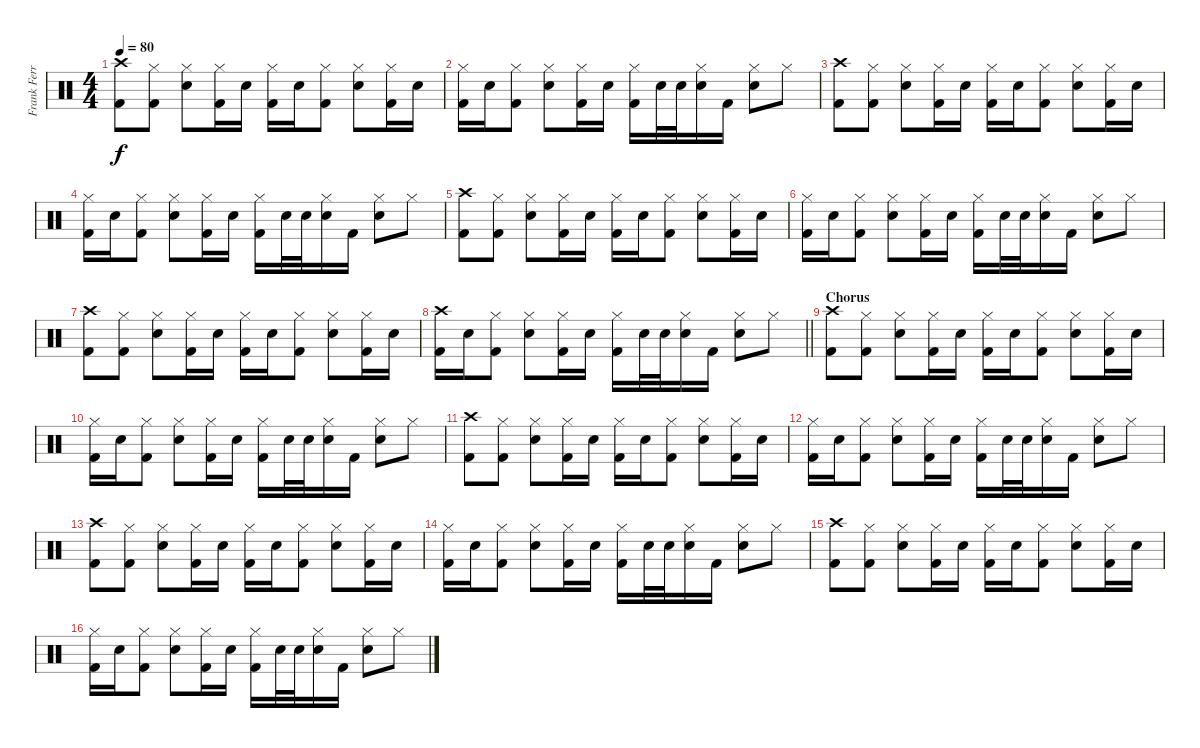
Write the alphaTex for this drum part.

\track ("Frank Ferrer" "Frank Ferr") {instrument percussion}
\staff {score}
\articulation defaults
\ts (4 4)
\tempo 80
\clef neutral
\ks c
("Crash high (hit)" "Kick (hit) 2").8{dy f} ("Hi-Hat (closed)" "Kick (hit) 2").8 ("Hi-Hat (closed)" "Snare (hit) 2").8 ("Hi-Hat (closed)" "Kick (hit) 2").16 "Snare (hit) 2".16 ("Hi-Hat (closed)" "Kick (hit) 2").16 "Snare (hit) 2".16 ("Hi-Hat (closed)" "Kick (hit) 2").8 ("Hi-Hat (closed)" "Snare (hit) 2").8 ("Hi-Hat (closed)" "Kick (hit) 2").16 "Snare (hit) 2".16 |
("Hi-Hat (closed)" "Kick (hit) 2").16 "Snare (hit) 2".16 ("Hi-Hat (closed)" "Kick (hit) 2").8 ("Hi-Hat (closed)" "Snare (hit) 2").8 ("Hi-Hat (closed)" "Kick (hit) 2").16 "Snare (hit) 2".16 ("Hi-Hat (closed)" "Kick (hit) 2").16 "Snare (hit) 2".32 "Snare (hit) 2".32 ("Hi-Hat (closed)" "Snare (hit) 2").16 "Kick (hit) 2".16 ("Hi-Hat (closed)" "Snare (hit) 2").8 "Hi-Hat (closed)".8 |
("Crash high (hit)" "Kick (hit) 2").8 ("Hi-Hat (closed)" "Kick (hit) 2").8 ("Hi-Hat (closed)" "Snare (hit) 2").8 ("Hi-Hat (closed)" "Kick (hit) 2").16 "Snare (hit) 2".16 ("Hi-Hat (closed)" "Kick (hit) 2").16 "Snare (hit) 2".16 ("Hi-Hat (closed)" "Kick (hit) 2").8 ("Hi-Hat (closed)" "Snare (hit) 2").8 ("Hi-Hat (closed)" "Kick (hit) 2").16 "Snare (hit) 2".16 |
("Hi-Hat (closed)" "Kick (hit) 2").16 "Snare (hit) 2".16 ("Hi-Hat (closed)" "Kick (hit) 2").8 ("Hi-Hat (closed)" "Snare (hit) 2").8 ("Hi-Hat (closed)" "Kick (hit) 2").16 "Snare (hit) 2".16 ("Hi-Hat (closed)" "Kick (hit) 2").16 "Snare (hit) 2".32 "Snare (hit) 2".32 ("Hi-Hat (closed)" "Snare (hit) 2").16 "Kick (hit) 2".16 ("Hi-Hat (closed)" "Snare (hit) 2").8 "Hi-Hat (closed)".8 |
("Crash high (hit)" "Kick (hit) 2").8 ("Hi-Hat (closed)" "Kick (hit) 2").8 ("Hi-Hat (closed)" "Snare (hit) 2").8 ("Hi-Hat (closed)" "Kick (hit) 2").16 "Snare (hit) 2".16 ("Hi-Hat (closed)" "Kick (hit) 2").16 "Snare (hit) 2".16 ("Hi-Hat (closed)" "Kick (hit) 2").8 ("Hi-Hat (closed)" "Snare (hit) 2").8 ("Hi-Hat (closed)" "Kick (hit) 2").16 "Snare (hit) 2".16 |
("Hi-Hat (closed)" "Kick (hit) 2").16 "Snare (hit) 2".16 ("Hi-Hat (closed)" "Kick (hit) 2").8 ("Hi-Hat (closed)" "Snare (hit) 2").8 ("Hi-Hat (closed)" "Kick (hit) 2").16 "Snare (hit) 2".16 ("Hi-Hat (closed)" "Kick (hit) 2").16 "Snare (hit) 2".32 "Snare (hit) 2".32 ("Hi-Hat (closed)" "Snare (hit) 2").16 "Kick (hit) 2".16 ("Hi-Hat (closed)" "Snare (hit) 2").8 "Hi-Hat (closed)".8 |
("Crash high (hit)" "Kick (hit) 2").8 ("Hi-Hat (closed)" "Kick (hit) 2").8 ("Hi-Hat (closed)" "Snare (hit) 2").8 ("Hi-Hat (closed)" "Kick (hit) 2").16 "Snare (hit) 2".16 ("Hi-Hat (closed)" "Kick (hit) 2").16 "Snare (hit) 2".16 ("Hi-Hat (closed)" "Kick (hit) 2").8 ("Hi-Hat (closed)" "Snare (hit) 2").8 ("Hi-Hat (closed)" "Kick (hit) 2").16 "Snare (hit) 2".16 |
\barLineRight lightlight
("Crash high (hit)" "Kick (hit) 2").16 "Snare (hit) 2".16 ("Hi-Hat (closed)" "Kick (hit) 2").8 ("Hi-Hat (closed)" "Snare (hit) 2").8 ("Hi-Hat (closed)" "Kick (hit) 2").16 "Snare (hit) 2".16 ("Hi-Hat (closed)" "Kick (hit) 2").16 "Snare (hit) 2".32 "Snare (hit) 2".32 ("Hi-Hat (closed)" "Snare (hit) 2").16 "Kick (hit) 2".16 ("Hi-Hat (closed)" "Snare (hit) 2").8 "Hi-Hat (closed)".8 |
\section ("" "Chorus")
("Crash high (hit)" "Kick (hit) 2").8 ("Hi-Hat (closed)" "Kick (hit) 2").8 ("Hi-Hat (closed)" "Snare (hit) 2").8 ("Hi-Hat (closed)" "Kick (hit) 2").16 "Snare (hit) 2".16 ("Hi-Hat (closed)" "Kick (hit) 2").16 "Snare (hit) 2".16 ("Hi-Hat (closed)" "Kick (hit) 2").8 ("Hi-Hat (closed)" "Snare (hit) 2").8 ("Hi-Hat (closed)" "Kick (hit) 2").16 "Snare (hit) 2".16 |
("Hi-Hat (closed)" "Kick (hit) 2").16 "Snare (hit) 2".16 ("Hi-Hat (closed)" "Kick (hit) 2").8 ("Hi-Hat (closed)" "Snare (hit) 2").8 ("Hi-Hat (closed)" "Kick (hit) 2").16 "Snare (hit) 2".16 ("Hi-Hat (closed)" "Kick (hit) 2").16 "Snare (hit) 2".32 "Snare (hit) 2".32 ("Hi-Hat (closed)" "Snare (hit) 2").16 "Kick (hit) 2".16 ("Hi-Hat (closed)" "Snare (hit) 2").8 "Hi-Hat (closed)".8 |
("Crash high (hit)" "Kick (hit) 2").8 ("Hi-Hat (closed)" "Kick (hit) 2").8 ("Hi-Hat (closed)" "Snare (hit) 2").8 ("Hi-Hat (closed)" "Kick (hit) 2").16 "Snare (hit) 2".16 ("Hi-Hat (closed)" "Kick (hit) 2").16 "Snare (hit) 2".16 ("Hi-Hat (closed)" "Kick (hit) 2").8 ("Hi-Hat (closed)" "Snare (hit) 2").8 ("Hi-Hat (closed)" "Kick (hit) 2").16 "Snare (hit) 2".16 |
("Hi-Hat (closed)" "Kick (hit) 2").16 "Snare (hit) 2".16 ("Hi-Hat (closed)" "Kick (hit) 2").8 ("Hi-Hat (closed)" "Snare (hit) 2").8 ("Hi-Hat (closed)" "Kick (hit) 2").16 "Snare (hit) 2".16 ("Hi-Hat (closed)" "Kick (hit) 2").16 "Snare (hit) 2".32 "Snare (hit) 2".32 ("Hi-Hat (closed)" "Snare (hit) 2").16 "Kick (hit) 2".16 ("Hi-Hat (closed)" "Snare (hit) 2").8 "Hi-Hat (closed)".8 |
("Crash high (hit)" "Kick (hit) 2").8 ("Hi-Hat (closed)" "Kick (hit) 2").8 ("Hi-Hat (closed)" "Snare (hit) 2").8 ("Hi-Hat (closed)" "Kick (hit) 2").16 "Snare (hit) 2".16 ("Hi-Hat (closed)" "Kick (hit) 2").16 "Snare (hit) 2".16 ("Hi-Hat (closed)" "Kick (hit) 2").8 ("Hi-Hat (closed)" "Snare (hit) 2").8 ("Hi-Hat (closed)" "Kick (hit) 2").16 "Snare (hit) 2".16 |
("Hi-Hat (closed)" "Kick (hit) 2").16 "Snare (hit) 2".16 ("Hi-Hat (closed)" "Kick (hit) 2").8 ("Hi-Hat (closed)" "Snare (hit) 2").8 ("Hi-Hat (closed)" "Kick (hit) 2").16 "Snare (hit) 2".16 ("Hi-Hat (closed)" "Kick (hit) 2").16 "Snare (hit) 2".32 "Snare (hit) 2".32 ("Hi-Hat (closed)" "Snare (hit) 2").16 "Kick (hit) 2".16 ("Hi-Hat (closed)" "Snare (hit) 2").8 "Hi-Hat (closed)".8 |
("Crash high (hit)" "Kick (hit) 2").8 ("Hi-Hat (closed)" "Kick (hit) 2").8 ("Hi-Hat (closed)" "Snare (hit) 2").8 ("Hi-Hat (closed)" "Kick (hit) 2").16 "Snare (hit) 2".16 ("Hi-Hat (closed)" "Kick (hit) 2").16 "Snare (hit) 2".16 ("Hi-Hat (closed)" "Kick (hit) 2").8 ("Hi-Hat (closed)" "Snare (hit) 2").8 ("Hi-Hat (closed)" "Kick (hit) 2").16 "Snare (hit) 2".16 |
("Hi-Hat (closed)" "Kick (hit) 2").16 "Snare (hit) 2".16 ("Hi-Hat (closed)" "Kick (hit) 2").8 ("Hi-Hat (closed)" "Snare (hit) 2").8 ("Hi-Hat (closed)" "Kick (hit) 2").16 "Snare (hit) 2".16 ("Hi-Hat (closed)" "Kick (hit) 2").16 "Snare (hit) 2".32 "Snare (hit) 2".32 ("Hi-Hat (closed)" "Snare (hit) 2").16 "Kick (hit) 2".16 ("Hi-Hat (closed)" "Snare (hit) 2").8 "Hi-Hat (closed)".8
